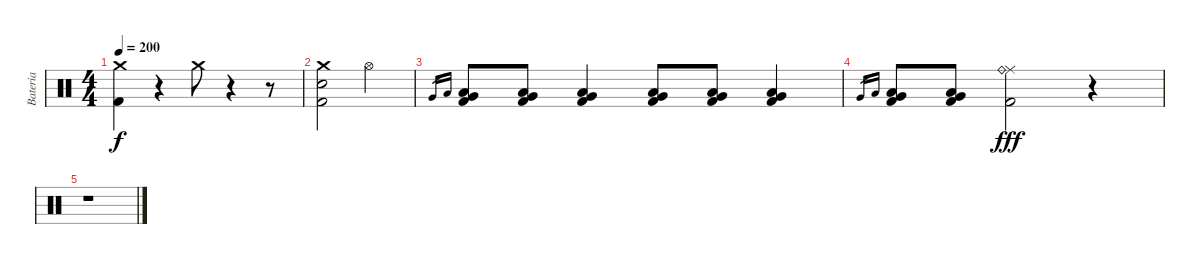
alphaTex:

\track ("Bateria" "Bateria") {instrument percussion}
\staff {score}
\articulation defaults
\ts (4 4)
\tempo 200
\clef neutral
\ks c
("Crash medium (hit)" "Kick (hit) 2").4{dy f} r.4 "Crash medium (hit)".8 r.4 r.8 |
("Crash medium (hit)" "Electric Snare (hit)" "Kick (hit) 2").2 "Hi-Hat (open)".2 |
"Very Low Tom (hit)".16{gr} "Low Floor Tom (hit)".16{gr} ("Very Low Tom (hit)" "Low Floor Tom (hit)" "Kick (hit) 2").8 ("Very Low Tom (hit)" "Low Floor Tom (hit)" "Kick (hit) 2").8 ("Very Low Tom (hit)" "Low Floor Tom (hit)" "Kick (hit) 2").4 ("Very Low Tom (hit)" "Low Floor Tom (hit)" "Kick (hit) 2").8 ("Very Low Tom (hit)" "Low Floor Tom (hit)" "Kick (hit) 2").8 ("Very Low Tom (hit)" "Low Floor Tom (hit)" "Kick (hit) 2").4 |
"Very Low Tom (hit)".16{gr} "Low Floor Tom (hit)".16{gr} ("Very Low Tom (hit)" "Low Floor Tom (hit)" "Kick (hit) 2").8 ("Very Low Tom (hit)" "Low Floor Tom (hit)" "Kick (hit) 2").8 ("Ride (middle)" "Ride (bell)" "Kick (hit) 2").2{dy fff} r.4 |
r.1
